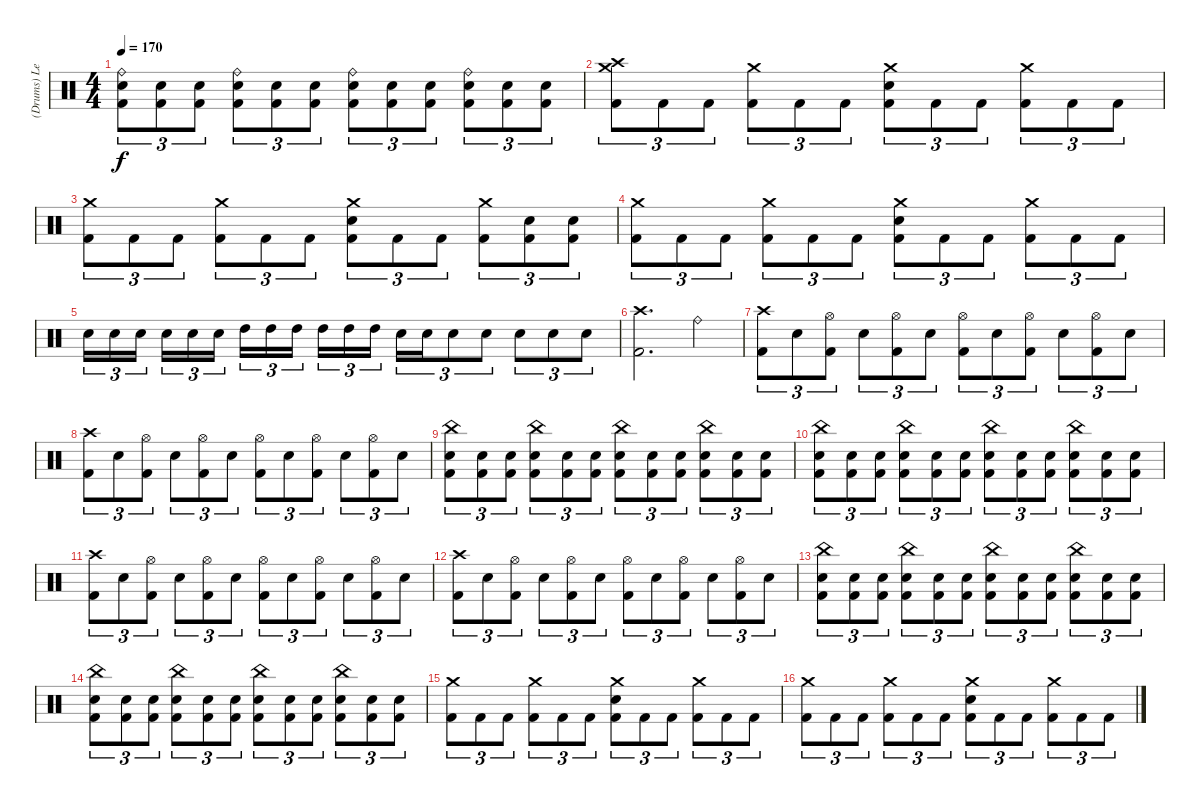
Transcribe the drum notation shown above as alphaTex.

\track ("(Drums) Leche" "(Drums) Le") {instrument percussion}
\staff {score}
\articulation defaults
\ts (4 4)
\tempo 170
\clef neutral
\ks c
("Ride (bell)" "Electric Snare (hit)" "Kick (hit) 2").8{tu (3 2) dy f} ("Electric Snare (hit)" "Kick (hit) 2").8{tu (3 2)} ("Electric Snare (hit)" "Kick (hit) 2").8{tu (3 2)} ("Ride (bell)" "Electric Snare (hit)" "Kick (hit) 2").8{tu (3 2)} ("Electric Snare (hit)" "Kick (hit) 2").8{tu (3 2)} ("Electric Snare (hit)" "Kick (hit) 2").8{tu (3 2)} ("Ride (bell)" "Electric Snare (hit)" "Kick (hit) 2").8{tu (3 2)} ("Electric Snare (hit)" "Kick (hit) 2").8{tu (3 2)} ("Electric Snare (hit)" "Kick (hit) 2").8{tu (3 2)} ("Ride (bell)" "Electric Snare (hit)" "Kick (hit) 2").8{tu (3 2)} ("Electric Snare (hit)" "Kick (hit) 2").8{tu (3 2)} ("Electric Snare (hit)" "Kick (hit) 2").8{tu (3 2)} |
("Crash high (hit)" "Crash medium (hit)" "Kick (hit) 2").8{tu (3 2)} "Kick (hit) 2".8{tu (3 2)} "Kick (hit) 2".8{tu (3 2)} ("Crash medium (hit)" "Kick (hit) 2").8{tu (3 2)} "Kick (hit) 2".8{tu (3 2)} "Kick (hit) 2".8{tu (3 2)} ("Crash medium (hit)" "Electric Snare (hit)" "Kick (hit) 2").8{tu (3 2)} "Kick (hit) 2".8{tu (3 2)} "Kick (hit) 2".8{tu (3 2)} ("Crash medium (hit)" "Kick (hit) 2").8{tu (3 2)} "Kick (hit) 2".8{tu (3 2)} "Kick (hit) 2".8{tu (3 2)} |
("Crash medium (hit)" "Kick (hit) 2").8{tu (3 2)} "Kick (hit) 2".8{tu (3 2)} "Kick (hit) 2".8{tu (3 2)} ("Crash medium (hit)" "Kick (hit) 2").8{tu (3 2)} "Kick (hit) 2".8{tu (3 2)} "Kick (hit) 2".8{tu (3 2)} ("Crash medium (hit)" "Electric Snare (hit)" "Kick (hit) 2").8{tu (3 2)} "Kick (hit) 2".8{tu (3 2)} "Kick (hit) 2".8{tu (3 2)} ("Crash medium (hit)" "Kick (hit) 2").8{tu (3 2)} ("Electric Snare (hit)" "Kick (hit) 2").8{tu (3 2)} ("Electric Snare (hit)" "Kick (hit) 2").8{tu (3 2)} |
("Crash medium (hit)" "Kick (hit) 2").8{tu (3 2)} "Kick (hit) 2".8{tu (3 2)} "Kick (hit) 2".8{tu (3 2)} ("Crash medium (hit)" "Kick (hit) 2").8{tu (3 2)} "Kick (hit) 2".8{tu (3 2)} "Kick (hit) 2".8{tu (3 2)} ("Crash medium (hit)" "Electric Snare (hit)" "Kick (hit) 2").8{tu (3 2)} "Kick (hit) 2".8{tu (3 2)} "Kick (hit) 2".8{tu (3 2)} ("Crash medium (hit)" "Kick (hit) 2").8{tu (3 2)} "Kick (hit) 2".8{tu (3 2)} "Kick (hit) 2".8{tu (3 2)} |
"Electric Snare (hit)".16{tu (3 2)} "Electric Snare (hit)".16{tu (3 2)} "Electric Snare (hit)".16{tu (3 2) beam splitsecondary} "Electric Snare (hit)".16{tu (3 2)} "Electric Snare (hit)".16{tu (3 2)} "Electric Snare (hit)".16{tu (3 2)} "High Tom (hit)".16{tu (3 2)} "High Tom (hit)".16{tu (3 2)} "High Tom (hit)".16{tu (3 2) beam splitsecondary} "High Tom (hit)".16{tu (3 2)} "High Tom (hit)".16{tu (3 2)} "High Tom (hit)".16{tu (3 2)} "Electric Snare (hit)".16{tu (3 2)} "Electric Snare (hit)".16{tu (3 2)} "Electric Snare (hit)".8{tu (3 2)} "Electric Snare (hit)".8{tu (3 2)} "Electric Snare (hit)".8{tu (3 2)} "Electric Snare (hit)".8{tu (3 2)} "Electric Snare (hit)".8{tu (3 2)} |
("Crash high (hit)" "Kick (hit) 2").2{d} "Ride (bell)".4 |
("Crash high (hit)" "Kick (hit) 2").8{tu (3 2)} "Electric Snare (hit)".8{tu (3 2)} ("Hi-Hat (open)" "Kick (hit) 2").8{tu (3 2)} "Electric Snare (hit)".8{tu (3 2)} ("Hi-Hat (open)" "Kick (hit) 2").8{tu (3 2)} "Electric Snare (hit)".8{tu (3 2)} ("Hi-Hat (open)" "Kick (hit) 2").8{tu (3 2)} "Electric Snare (hit)".8{tu (3 2)} ("Hi-Hat (open)" "Kick (hit) 2").8{tu (3 2)} "Electric Snare (hit)".8{tu (3 2)} ("Hi-Hat (open)" "Kick (hit) 2").8{tu (3 2)} "Electric Snare (hit)".8{tu (3 2)} |
("Crash high (hit)" "Kick (hit) 2").8{tu (3 2)} "Electric Snare (hit)".8{tu (3 2)} ("Hi-Hat (open)" "Kick (hit) 2").8{tu (3 2)} "Electric Snare (hit)".8{tu (3 2)} ("Hi-Hat (open)" "Kick (hit) 2").8{tu (3 2)} "Electric Snare (hit)".8{tu (3 2)} ("Hi-Hat (open)" "Kick (hit) 2").8{tu (3 2)} "Electric Snare (hit)".8{tu (3 2)} ("Hi-Hat (open)" "Kick (hit) 2").8{tu (3 2)} "Electric Snare (hit)".8{tu (3 2)} ("Hi-Hat (open)" "Kick (hit) 2").8{tu (3 2)} "Electric Snare (hit)".8{tu (3 2)} |
("China (hit)" "Electric Snare (hit)" "Kick (hit) 2").8{tu (3 2)} ("Electric Snare (hit)" "Kick (hit) 2").8{tu (3 2)} ("Electric Snare (hit)" "Kick (hit) 2").8{tu (3 2)} ("China (hit)" "Electric Snare (hit)" "Kick (hit) 2").8{tu (3 2)} ("Electric Snare (hit)" "Kick (hit) 2").8{tu (3 2)} ("Electric Snare (hit)" "Kick (hit) 2").8{tu (3 2)} ("China (hit)" "Electric Snare (hit)" "Kick (hit) 2").8{tu (3 2)} ("Electric Snare (hit)" "Kick (hit) 2").8{tu (3 2)} ("Electric Snare (hit)" "Kick (hit) 2").8{tu (3 2)} ("China (hit)" "Electric Snare (hit)" "Kick (hit) 2").8{tu (3 2)} ("Electric Snare (hit)" "Kick (hit) 2").8{tu (3 2)} ("Electric Snare (hit)" "Kick (hit) 2").8{tu (3 2)} |
("China (hit)" "Electric Snare (hit)" "Kick (hit) 2").8{tu (3 2)} ("Electric Snare (hit)" "Kick (hit) 2").8{tu (3 2)} ("Electric Snare (hit)" "Kick (hit) 2").8{tu (3 2)} ("China (hit)" "Electric Snare (hit)" "Kick (hit) 2").8{tu (3 2)} ("Electric Snare (hit)" "Kick (hit) 2").8{tu (3 2)} ("Electric Snare (hit)" "Kick (hit) 2").8{tu (3 2)} ("China (hit)" "Electric Snare (hit)" "Kick (hit) 2").8{tu (3 2)} ("Electric Snare (hit)" "Kick (hit) 2").8{tu (3 2)} ("Electric Snare (hit)" "Kick (hit) 2").8{tu (3 2)} ("China (hit)" "Electric Snare (hit)" "Kick (hit) 2").8{tu (3 2)} ("Electric Snare (hit)" "Kick (hit) 2").8{tu (3 2)} ("Electric Snare (hit)" "Kick (hit) 2").8{tu (3 2)} |
("Crash high (hit)" "Kick (hit) 2").8{tu (3 2)} "Electric Snare (hit)".8{tu (3 2)} ("Hi-Hat (open)" "Kick (hit) 2").8{tu (3 2)} "Electric Snare (hit)".8{tu (3 2)} ("Hi-Hat (open)" "Kick (hit) 2").8{tu (3 2)} "Electric Snare (hit)".8{tu (3 2)} ("Hi-Hat (open)" "Kick (hit) 2").8{tu (3 2)} "Electric Snare (hit)".8{tu (3 2)} ("Hi-Hat (open)" "Kick (hit) 2").8{tu (3 2)} "Electric Snare (hit)".8{tu (3 2)} ("Hi-Hat (open)" "Kick (hit) 2").8{tu (3 2)} "Electric Snare (hit)".8{tu (3 2)} |
("Crash high (hit)" "Kick (hit) 2").8{tu (3 2)} "Electric Snare (hit)".8{tu (3 2)} ("Hi-Hat (open)" "Kick (hit) 2").8{tu (3 2)} "Electric Snare (hit)".8{tu (3 2)} ("Hi-Hat (open)" "Kick (hit) 2").8{tu (3 2)} "Electric Snare (hit)".8{tu (3 2)} ("Hi-Hat (open)" "Kick (hit) 2").8{tu (3 2)} "Electric Snare (hit)".8{tu (3 2)} ("Hi-Hat (open)" "Kick (hit) 2").8{tu (3 2)} "Electric Snare (hit)".8{tu (3 2)} ("Hi-Hat (open)" "Kick (hit) 2").8{tu (3 2)} "Electric Snare (hit)".8{tu (3 2)} |
("China (hit)" "Electric Snare (hit)" "Kick (hit) 2").8{tu (3 2)} ("Electric Snare (hit)" "Kick (hit) 2").8{tu (3 2)} ("Electric Snare (hit)" "Kick (hit) 2").8{tu (3 2)} ("China (hit)" "Electric Snare (hit)" "Kick (hit) 2").8{tu (3 2)} ("Electric Snare (hit)" "Kick (hit) 2").8{tu (3 2)} ("Electric Snare (hit)" "Kick (hit) 2").8{tu (3 2)} ("China (hit)" "Electric Snare (hit)" "Kick (hit) 2").8{tu (3 2)} ("Electric Snare (hit)" "Kick (hit) 2").8{tu (3 2)} ("Electric Snare (hit)" "Kick (hit) 2").8{tu (3 2)} ("China (hit)" "Electric Snare (hit)" "Kick (hit) 2").8{tu (3 2)} ("Electric Snare (hit)" "Kick (hit) 2").8{tu (3 2)} ("Electric Snare (hit)" "Kick (hit) 2").8{tu (3 2)} |
("China (hit)" "Electric Snare (hit)" "Kick (hit) 2").8{tu (3 2)} ("Electric Snare (hit)" "Kick (hit) 2").8{tu (3 2)} ("Electric Snare (hit)" "Kick (hit) 2").8{tu (3 2)} ("China (hit)" "Electric Snare (hit)" "Kick (hit) 2").8{tu (3 2)} ("Electric Snare (hit)" "Kick (hit) 2").8{tu (3 2)} ("Electric Snare (hit)" "Kick (hit) 2").8{tu (3 2)} ("China (hit)" "Electric Snare (hit)" "Kick (hit) 2").8{tu (3 2)} ("Electric Snare (hit)" "Kick (hit) 2").8{tu (3 2)} ("Electric Snare (hit)" "Kick (hit) 2").8{tu (3 2)} ("China (hit)" "Electric Snare (hit)" "Kick (hit) 2").8{tu (3 2)} ("Electric Snare (hit)" "Kick (hit) 2").8{tu (3 2)} ("Electric Snare (hit)" "Kick (hit) 2").8{tu (3 2)} |
("Crash medium (hit)" "Kick (hit) 2").8{tu (3 2)} "Kick (hit) 2".8{tu (3 2)} "Kick (hit) 2".8{tu (3 2)} ("Crash medium (hit)" "Kick (hit) 2").8{tu (3 2)} "Kick (hit) 2".8{tu (3 2)} "Kick (hit) 2".8{tu (3 2)} ("Crash medium (hit)" "Electric Snare (hit)" "Kick (hit) 2").8{tu (3 2)} "Kick (hit) 2".8{tu (3 2)} "Kick (hit) 2".8{tu (3 2)} ("Crash medium (hit)" "Kick (hit) 2").8{tu (3 2)} "Kick (hit) 2".8{tu (3 2)} "Kick (hit) 2".8{tu (3 2)} |
("Crash medium (hit)" "Kick (hit) 2").8{tu (3 2)} "Kick (hit) 2".8{tu (3 2)} "Kick (hit) 2".8{tu (3 2)} ("Crash medium (hit)" "Kick (hit) 2").8{tu (3 2)} "Kick (hit) 2".8{tu (3 2)} "Kick (hit) 2".8{tu (3 2)} ("Crash medium (hit)" "Electric Snare (hit)" "Kick (hit) 2").8{tu (3 2)} "Kick (hit) 2".8{tu (3 2)} "Kick (hit) 2".8{tu (3 2)} ("Crash medium (hit)" "Kick (hit) 2").8{tu (3 2)} "Kick (hit) 2".8{tu (3 2)} "Kick (hit) 2".8{tu (3 2)}
